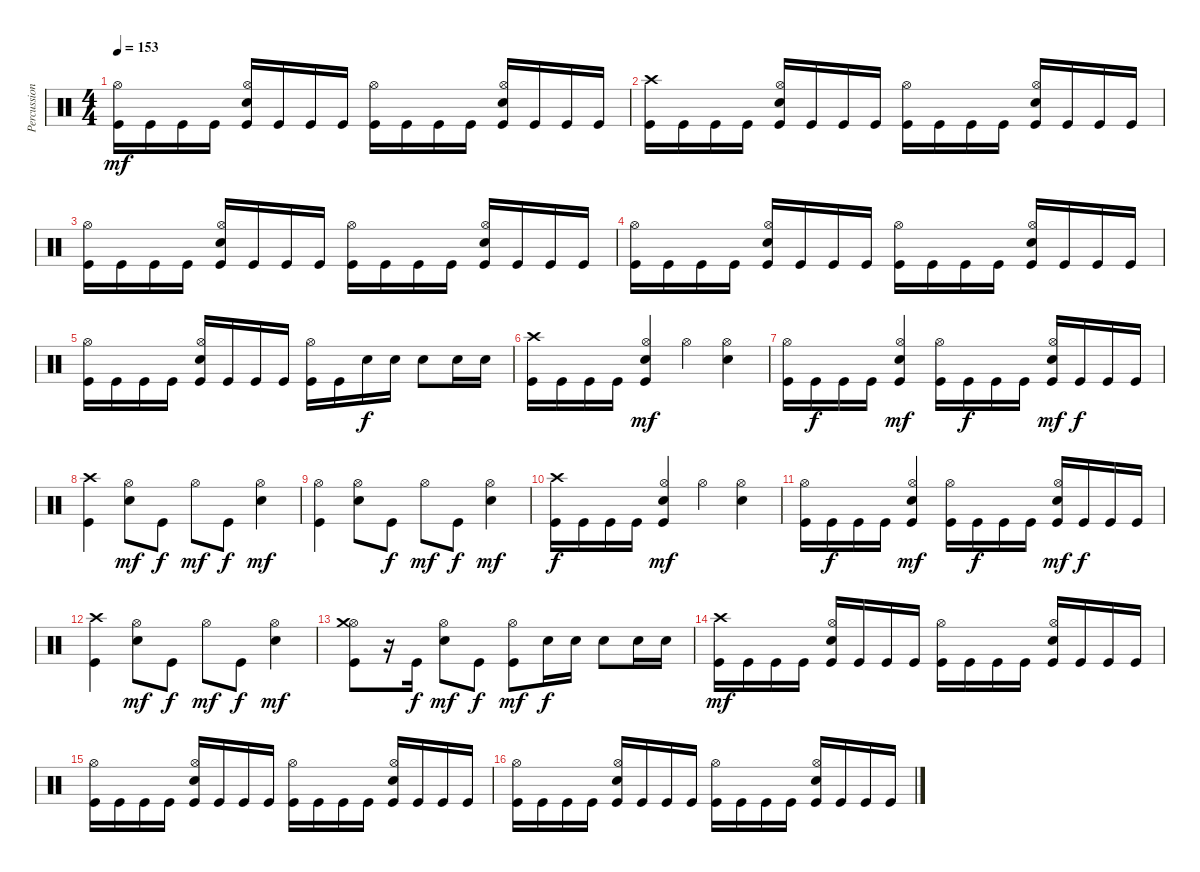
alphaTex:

\track ("Percussions" "Percussion") {instrument percussion}
\staff {score}
\articulation defaults
\ts (4 4)
\tempo 153
\clef neutral
\ks c
("Kick (hit)" "Hi-Hat (open)").16{dy mf} "Kick (hit)".16 "Kick (hit)".16 "Kick (hit)".16 ("Kick (hit)" "Electric Snare (hit)" "Hi-Hat (open)").16 "Kick (hit)".16 "Kick (hit)".16 "Kick (hit)".16 ("Kick (hit)" "Hi-Hat (open)").16 "Kick (hit)".16 "Kick (hit)".16 "Kick (hit)".16 ("Kick (hit)" "Electric Snare (hit)" "Hi-Hat (open)").16 "Kick (hit)".16 "Kick (hit)".16 "Kick (hit)".16 |
("Kick (hit)" "Crash high (hit)").16 "Kick (hit)".16 "Kick (hit)".16 "Kick (hit)".16 ("Kick (hit)" "Electric Snare (hit)" "Hi-Hat (open)").16 "Kick (hit)".16 "Kick (hit)".16 "Kick (hit)".16 ("Kick (hit)" "Hi-Hat (open)").16 "Kick (hit)".16 "Kick (hit)".16 "Kick (hit)".16 ("Kick (hit)" "Electric Snare (hit)" "Hi-Hat (open)").16 "Kick (hit)".16 "Kick (hit)".16 "Kick (hit)".16 |
("Kick (hit)" "Hi-Hat (open)").16 "Kick (hit)".16 "Kick (hit)".16 "Kick (hit)".16 ("Kick (hit)" "Electric Snare (hit)" "Hi-Hat (open)").16 "Kick (hit)".16 "Kick (hit)".16 "Kick (hit)".16 ("Kick (hit)" "Hi-Hat (open)").16 "Kick (hit)".16 "Kick (hit)".16 "Kick (hit)".16 ("Kick (hit)" "Electric Snare (hit)" "Hi-Hat (open)").16 "Kick (hit)".16 "Kick (hit)".16 "Kick (hit)".16 |
("Kick (hit)" "Hi-Hat (open)").16 "Kick (hit)".16 "Kick (hit)".16 "Kick (hit)".16 ("Kick (hit)" "Electric Snare (hit)" "Hi-Hat (open)").16 "Kick (hit)".16 "Kick (hit)".16 "Kick (hit)".16 ("Kick (hit)" "Hi-Hat (open)").16 "Kick (hit)".16 "Kick (hit)".16 "Kick (hit)".16 ("Kick (hit)" "Electric Snare (hit)" "Hi-Hat (open)").16 "Kick (hit)".16 "Kick (hit)".16 "Kick (hit)".16 |
("Kick (hit)" "Hi-Hat (open)").16 "Kick (hit)".16 "Kick (hit)".16 "Kick (hit)".16 ("Kick (hit)" "Electric Snare (hit)" "Hi-Hat (open)").16 "Kick (hit)".16 "Kick (hit)".16 "Kick (hit)".16 ("Kick (hit)" "Hi-Hat (open)").16 "Kick (hit)".16 "Electric Snare (hit)".16{dy f} "Electric Snare (hit)".16 "Electric Snare (hit)".8 "Electric Snare (hit)".16 "Electric Snare (hit)".16 |
("Kick (hit)" "Crash high (hit)").16 "Kick (hit)".16 "Kick (hit)".16 "Kick (hit)".16 ("Kick (hit)" "Electric Snare (hit)" "Hi-Hat (open)").4{dy mf} "Hi-Hat (open)".4 ("Electric Snare (hit)" "Hi-Hat (open)").4 |
("Kick (hit)" "Hi-Hat (open)").16 "Kick (hit)".16{dy f} "Kick (hit)".16 "Kick (hit)".16 ("Kick (hit)" "Electric Snare (hit)" "Hi-Hat (open)").4{dy mf} ("Kick (hit)" "Hi-Hat (open)").16 "Kick (hit)".16{dy f} "Kick (hit)".16 "Kick (hit)".16 ("Kick (hit)" "Electric Snare (hit)" "Hi-Hat (open)").16{dy mf} "Kick (hit)".16{dy f} "Kick (hit)".16 "Kick (hit)".16 |
("Kick (hit)" "Crash high (hit)").4 ("Electric Snare (hit)" "Hi-Hat (open)").8{dy mf} "Kick (hit)".8{dy f} "Hi-Hat (open)".8{dy mf} "Kick (hit)".8{dy f} ("Electric Snare (hit)" "Hi-Hat (open)").4{dy mf} |
("Kick (hit)" "Hi-Hat (open)").4 ("Electric Snare (hit)" "Hi-Hat (open)").8 "Kick (hit)".8{dy f} "Hi-Hat (open)".8{dy mf} "Kick (hit)".8{dy f} ("Electric Snare (hit)" "Hi-Hat (open)").4{dy mf} |
("Kick (hit)" "Crash high (hit)").16{dy f} "Kick (hit)".16 "Kick (hit)".16 "Kick (hit)".16 ("Kick (hit)" "Electric Snare (hit)" "Hi-Hat (open)").4{dy mf} "Hi-Hat (open)".4 ("Electric Snare (hit)" "Hi-Hat (open)").4 |
("Kick (hit)" "Hi-Hat (open)").16 "Kick (hit)".16{dy f} "Kick (hit)".16 "Kick (hit)".16 ("Kick (hit)" "Electric Snare (hit)" "Hi-Hat (open)").4{dy mf} ("Kick (hit)" "Hi-Hat (open)").16 "Kick (hit)".16{dy f} "Kick (hit)".16 "Kick (hit)".16 ("Kick (hit)" "Electric Snare (hit)" "Hi-Hat (open)").16{dy mf} "Kick (hit)".16{dy f} "Kick (hit)".16 "Kick (hit)".16 |
("Kick (hit)" "Crash high (hit)").4 ("Electric Snare (hit)" "Hi-Hat (open)").8{dy mf} "Kick (hit)".8{dy f} "Hi-Hat (open)".8{dy mf} "Kick (hit)".8{dy f} ("Electric Snare (hit)" "Hi-Hat (open)").4{dy mf} |
("Kick (hit)" "Hi-Hat (open)" "Crash medium (hit)").8 r.16 "Kick (hit)".16{dy f} ("Electric Snare (hit)" "Hi-Hat (open)").8{dy mf} "Kick (hit)".8{dy f} ("Kick (hit)" "Hi-Hat (open)").8{dy mf} "Electric Snare (hit)".16{dy f} "Electric Snare (hit)".16 "Electric Snare (hit)".8 "Electric Snare (hit)".16 "Electric Snare (hit)".16 |
("Kick (hit)" "Crash high (hit)").16{dy mf} "Kick (hit)".16 "Kick (hit)".16 "Kick (hit)".16 ("Kick (hit)" "Electric Snare (hit)" "Hi-Hat (open)").16 "Kick (hit)".16 "Kick (hit)".16 "Kick (hit)".16 ("Kick (hit)" "Hi-Hat (open)").16 "Kick (hit)".16 "Kick (hit)".16 "Kick (hit)".16 ("Kick (hit)" "Electric Snare (hit)" "Hi-Hat (open)").16 "Kick (hit)".16 "Kick (hit)".16 "Kick (hit)".16 |
("Kick (hit)" "Hi-Hat (open)").16 "Kick (hit)".16 "Kick (hit)".16 "Kick (hit)".16 ("Kick (hit)" "Electric Snare (hit)" "Hi-Hat (open)").16 "Kick (hit)".16 "Kick (hit)".16 "Kick (hit)".16 ("Kick (hit)" "Hi-Hat (open)").16 "Kick (hit)".16 "Kick (hit)".16 "Kick (hit)".16 ("Kick (hit)" "Electric Snare (hit)" "Hi-Hat (open)").16 "Kick (hit)".16 "Kick (hit)".16 "Kick (hit)".16 |
("Kick (hit)" "Hi-Hat (open)").16 "Kick (hit)".16 "Kick (hit)".16 "Kick (hit)".16 ("Kick (hit)" "Electric Snare (hit)" "Hi-Hat (open)").16 "Kick (hit)".16 "Kick (hit)".16 "Kick (hit)".16 ("Kick (hit)" "Hi-Hat (open)").16 "Kick (hit)".16 "Kick (hit)".16 "Kick (hit)".16 ("Kick (hit)" "Electric Snare (hit)" "Hi-Hat (open)").16 "Kick (hit)".16 "Kick (hit)".16 "Kick (hit)".16
